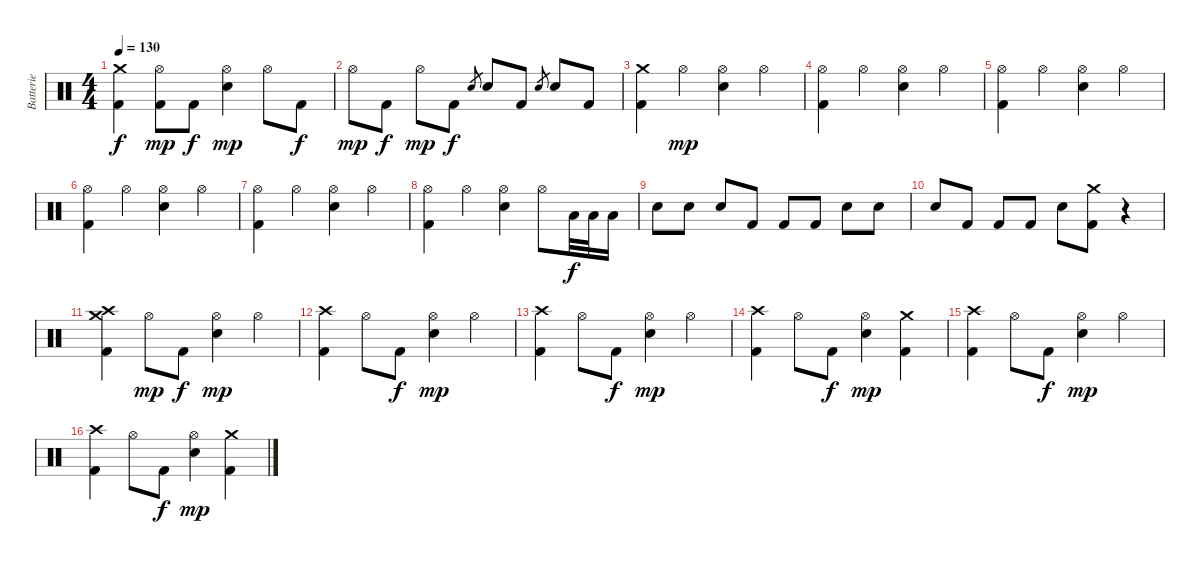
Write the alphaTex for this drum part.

\track ("Batterie" "Batterie") {instrument percussion}
\staff {score}
\articulation defaults
\ts (4 4)
\tempo 130
\clef neutral
\ks c
("Crash medium (hit)" "Kick (hit) 2").4{dy f} ("Hi-Hat (open)" "Kick (hit) 2").8{dy mp} "Kick (hit) 2".8{dy f} ("Hi-Hat (open)" "Electric Snare (hit)").4{dy mp} "Hi-Hat (open)".8 "Kick (hit) 2".8{dy f} |
"Hi-Hat (open)".8{dy mp} "Kick (hit) 2".8{dy f} "Hi-Hat (open)".8{dy mp} "Kick (hit) 2".8{dy f} "Electric Snare (hit)".8{gr} "Electric Snare (hit)".8 "Kick (hit) 2".8 "Electric Snare (hit)".8{gr} "Electric Snare (hit)".8 "Kick (hit) 2".8 |
("Crash medium (hit)" "Kick (hit) 2").4 "Hi-Hat (open)".4{dy mp} ("Hi-Hat (open)" "Electric Snare (hit)").4 "Hi-Hat (open)".4 |
("Hi-Hat (open)" "Kick (hit) 2").4 "Hi-Hat (open)".4 ("Hi-Hat (open)" "Electric Snare (hit)").4 "Hi-Hat (open)".4 |
("Hi-Hat (open)" "Kick (hit) 2").4 "Hi-Hat (open)".4 ("Hi-Hat (open)" "Electric Snare (hit)").4 "Hi-Hat (open)".4 |
("Hi-Hat (open)" "Kick (hit) 2").4 "Hi-Hat (open)".4 ("Hi-Hat (open)" "Electric Snare (hit)").4 "Hi-Hat (open)".4 |
("Hi-Hat (open)" "Kick (hit) 2").4 "Hi-Hat (open)".4 ("Hi-Hat (open)" "Electric Snare (hit)").4 "Hi-Hat (open)".4 |
("Hi-Hat (open)" "Kick (hit) 2").4 "Hi-Hat (open)".4 ("Hi-Hat (open)" "Electric Snare (hit)").4 "Hi-Hat (open)".8 "Low Tom (hit)".32{dy f} "Low Tom (hit)".32 "Low Tom (hit)".16 |
"Electric Snare (hit)".8 "Electric Snare (hit)".8 "Electric Snare (hit)".8 "Kick (hit) 2".8 "Kick (hit) 2".8 "Kick (hit) 2".8 "Electric Snare (hit)".8 "Electric Snare (hit)".8 |
"Electric Snare (hit)".8 "Kick (hit) 2".8 "Kick (hit) 2".8 "Kick (hit) 2".8 "Electric Snare (hit)".8 ("Crash medium (hit)" "Kick (hit) 2").8 r.4 |
("Crash medium (hit)" "Crash high (hit)" "Kick (hit) 2").4 "Hi-Hat (open)".8{dy mp} "Kick (hit) 2".8{dy f} ("Hi-Hat (open)" "Electric Snare (hit)").4{dy mp} "Hi-Hat (open)".4 |
("Crash high (hit)" "Kick (hit) 2").4 "Hi-Hat (open)".8 "Kick (hit) 2".8{dy f} ("Hi-Hat (open)" "Electric Snare (hit)").4{dy mp} "Hi-Hat (open)".4 |
("Crash high (hit)" "Kick (hit) 2").4 "Hi-Hat (open)".8 "Kick (hit) 2".8{dy f} ("Hi-Hat (open)" "Electric Snare (hit)").4{dy mp} "Hi-Hat (open)".4 |
("Crash high (hit)" "Kick (hit) 2").4 "Hi-Hat (open)".8 "Kick (hit) 2".8{dy f} ("Hi-Hat (open)" "Electric Snare (hit)").4{dy mp} ("Crash medium (hit)" "Kick (hit) 2").4 |
("Crash high (hit)" "Kick (hit) 2").4 "Hi-Hat (open)".8 "Kick (hit) 2".8{dy f} ("Hi-Hat (open)" "Electric Snare (hit)").4{dy mp} "Hi-Hat (open)".4 |
("Crash high (hit)" "Kick (hit) 2").4 "Hi-Hat (open)".8 "Kick (hit) 2".8{dy f} ("Hi-Hat (open)" "Electric Snare (hit)").4{dy mp} ("Crash medium (hit)" "Kick (hit) 2").4
